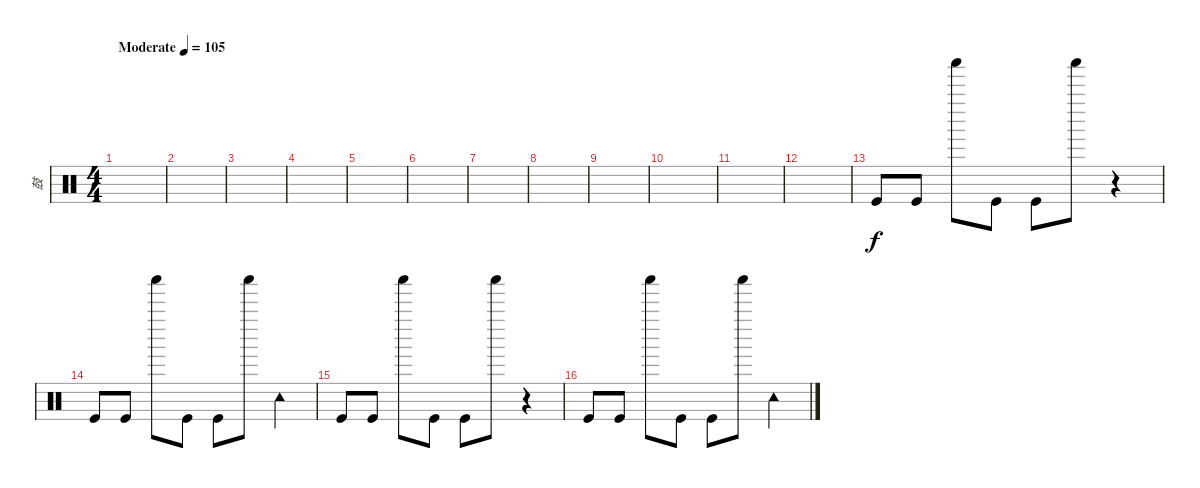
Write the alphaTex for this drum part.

\track ("鼓" "鼓") {instrument percussion}
\staff {score}
\articulation defaults
\ts (4 4)
\tempo (105 "Moderate")
\clef neutral
\ks c
|
|
|
|
|
|
|
|
|
|
|
|
"Kick (hit)".8{volume 6} "Kick (hit)".8 "Shaker (hit)".8 "Kick (hit)".8 "Kick (hit)".8 "Shaker (hit)".8 r.4 |
"Kick (hit)".8 "Kick (hit)".8 "Shaker (hit)".8 "Kick (hit)".8 "Kick (hit)".8 "Shaker (hit)".8 "Tambourine (hit)".4 |
"Kick (hit)".8 "Kick (hit)".8 "Shaker (hit)".8 "Kick (hit)".8 "Kick (hit)".8 "Shaker (hit)".8 r.4 |
"Kick (hit)".8 "Kick (hit)".8 "Shaker (hit)".8 "Kick (hit)".8 "Kick (hit)".8 "Shaker (hit)".8 "Tambourine (hit)".4
